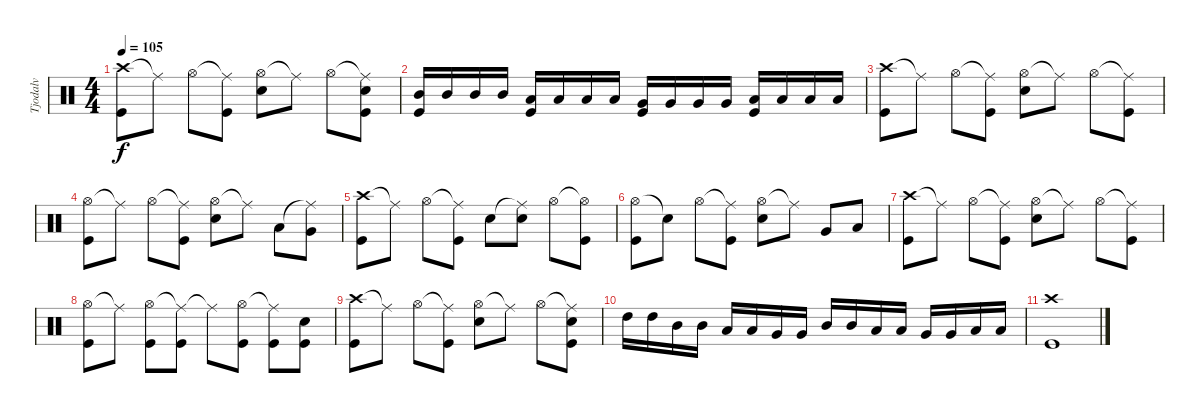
\track ("Tjodalv" "Tjodalv") {instrument percussion}
\staff {score}
\articulation defaults
\ts (4 4)
\tempo 105
\clef neutral
\ks c
("Crash high (hit)" "Kick (hit)").8{dy f} "Ride (middle)"{t}.8 "Hi-Hat (open)".8 ("Ride (middle)"{t} "Kick (hit)").8 ("Hi-Hat (open)" "Snare (hit) 2").8 "Ride (middle)"{t}.8 "Hi-Hat (open)".8 ("Ride (middle)"{t} "Snare (hit) 2" "Kick (hit)").8 |
("Mid Tom (hit)" "Kick (hit)").16 "Mid Tom (hit)".16 "Mid Tom (hit)".16 "Mid Tom (hit)".16 ("Low Tom (hit)" "Kick (hit)").16 "Low Tom (hit)".16 "Low Tom (hit)".16 "Low Tom (hit)".16 ("Very Low Tom (hit)" "Kick (hit)").16 "Very Low Tom (hit)".16 "Very Low Tom (hit)".16 "Very Low Tom (hit)".16 ("Low Floor Tom (hit)" "Kick (hit)").16 "Low Floor Tom (hit)".16 "Low Floor Tom (hit)".16 "Low Floor Tom (hit)".16 |
("Crash high (hit)" "Kick (hit)").8 "Ride (middle)"{t}.8 "Hi-Hat (open)".8 ("Ride (middle)"{t} "Kick (hit)").8 ("Hi-Hat (open)" "Snare (hit) 2").8 "Ride (middle)"{t}.8 "Hi-Hat (open)".8 ("Ride (middle)"{t} "Kick (hit)").8 |
("Hi-Hat (open)" "Kick (hit)").8 "Ride (middle)"{t}.8 "Hi-Hat (open)".8 ("Ride (middle)"{t} "Kick (hit)").8 ("Hi-Hat (open)" "Snare (hit) 2").8 "Ride (middle)"{t}.8 "Low Tom (hit)".8 ("Ride (middle)"{t} "Very Low Tom (hit)").8 |
("Crash high (hit)" "Kick (hit)").8 "Ride (middle)"{t}.8 "Hi-Hat (open)".8 ("Ride (middle)"{t} "Kick (hit)").8 "Snare (hit) 2".8 ("Ride (middle)"{t} "Snare (hit) 2").8 "Hi-Hat (open)".8 ("Hi-Hat (open)"{t} "Kick (hit)").8 |
("Hi-Hat (open)" "Kick (hit)").8 "Snare (hit)"{t}.8 "Hi-Hat (open)".8 ("Ride (middle)"{t} "Kick (hit)").8 ("Hi-Hat (open)" "Snare (hit) 2").8 "Ride (middle)"{t}.8 "Very Low Tom (hit)".8 "Low Floor Tom (hit)".8 |
("Crash high (hit)" "Kick (hit)").8 "Ride (middle)"{t}.8 "Hi-Hat (open)".8 ("Ride (middle)"{t} "Kick (hit)").8 ("Hi-Hat (open)" "Snare (hit) 2").8 "Ride (middle)"{t}.8 "Hi-Hat (open)".8 ("Ride (middle)"{t} "Kick (hit)").8 |
("Hi-Hat (open)" "Kick (hit)").8 "Ride (middle)"{t}.8 ("Hi-Hat (open)" "Kick (hit)").8 ("Ride (middle)"{t} "Kick (hit)").8 "Ride (middle)"{t}.8 ("Hi-Hat (open)" "Kick (hit)").8 ("Ride (middle)"{t} "Kick (hit)").8 ("Snare (hit) 2" "Kick (hit)").8 |
("Crash high (hit)" "Kick (hit)").8 "Ride (middle)"{t}.8 "Hi-Hat (open)".8 ("Ride (middle)"{t} "Kick (hit)").8 ("Hi-Hat (open)" "Snare (hit) 2").8 "Ride (middle)"{t}.8 "Hi-Hat (open)".8 ("Ride (middle)"{t} "Snare (hit) 2" "Kick (hit)").8 |
"High Tom (hit)".16 "High Tom (hit)".16 "Mid Tom (hit)".16 "Mid Tom (hit)".16 "Low Tom (hit)".16 "Low Tom (hit)".16 "Very Low Tom (hit)".16 "Very Low Tom (hit)".16 "Mid Tom (hit)".16 "Mid Tom (hit)".16 "Low Tom (hit)".16 "Low Tom (hit)".16 "Very Low Tom (hit)".16 "Very Low Tom (hit)".16 "Low Floor Tom (hit)".16 "Low Floor Tom (hit)".16 |
("Crash high (hit)" "Kick (hit)").1
